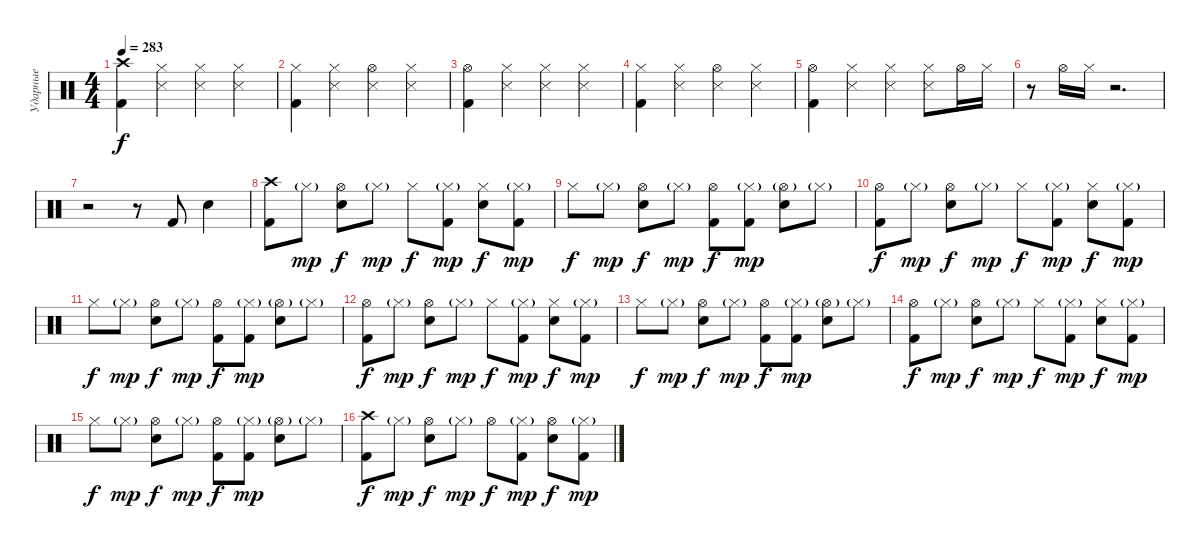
\track ("Ударные" "Ударные") {instrument percussion}
\staff {score}
\articulation defaults
\ts (4 4)
\tempo 283
\clef neutral
\ks c
("Crash high (hit)" "Kick (hit) 2").4{dy f} ("Hi-Hat (closed)" "Snare (side stick) 3").4 ("Hi-Hat (closed)" "Snare (side stick) 3").4 ("Hi-Hat (closed)" "Snare (side stick) 3").4 |
("Hi-Hat (closed)" "Kick (hit) 2").4 ("Hi-Hat (closed)" "Snare (side stick) 3").4 ("Hi-Hat (open)" "Snare (side stick) 3").4 ("Hi-Hat (closed)" "Snare (side stick) 3").4 |
("Hi-Hat (open)" "Kick (hit) 2").4 ("Hi-Hat (closed)" "Snare (side stick) 3").4 ("Hi-Hat (closed)" "Snare (side stick) 3").4 ("Hi-Hat (closed)" "Snare (side stick) 3").4 |
("Hi-Hat (closed)" "Kick (hit) 2").4 ("Hi-Hat (closed)" "Snare (side stick) 3").4 ("Hi-Hat (open)" "Snare (side stick) 3").4 ("Hi-Hat (closed)" "Snare (side stick) 3").4 |
("Hi-Hat (open)" "Kick (hit) 2").4 ("Hi-Hat (closed)" "Snare (side stick) 3").4 ("Hi-Hat (closed)" "Snare (side stick) 3").4 ("Hi-Hat (closed)" "Snare (side stick) 3").8 "Hi-Hat (open)".16 "Hi-Hat (closed)".16 |
r.8 "Hi-Hat (open)".16 "Hi-Hat (closed)".16 r.2{d} |
r.2 r.8 "Kick (hit) 2".8 "Electric Snare (hit)".4 |
("Crash high (hit)" "Kick (hit) 2").8 "Hi-Hat (closed)"{g}.8{dy mp} ("Hi-Hat (open)" "Electric Snare (hit)").8{dy f} "Hi-Hat (closed)"{g}.8{dy mp} "Hi-Hat (closed)".8{dy f} ("Hi-Hat (closed)"{g} "Kick (hit) 2").8{dy mp} ("Hi-Hat (closed)" "Electric Snare (hit)").8{dy f} ("Hi-Hat (closed)"{g} "Kick (hit) 2").8{dy mp} |
"Hi-Hat (closed)".8{dy f} "Hi-Hat (closed)"{g}.8{dy mp} ("Hi-Hat (open)" "Electric Snare (hit)").8{dy f} "Hi-Hat (closed)"{g}.8{dy mp} ("Hi-Hat (open)" "Kick (hit) 2").8{dy f} ("Hi-Hat (closed)"{g} "Kick (hit) 2").8{dy mp} ("Hi-Hat (open)"{g} "Electric Snare (hit)").8 "Hi-Hat (closed)"{g}.8 |
("Hi-Hat (open)" "Kick (hit) 2").8{dy f} "Hi-Hat (closed)"{g}.8{dy mp} ("Hi-Hat (open)" "Electric Snare (hit)").8{dy f} "Hi-Hat (closed)"{g}.8{dy mp} "Hi-Hat (closed)".8{dy f} ("Hi-Hat (closed)"{g} "Kick (hit) 2").8{dy mp} ("Hi-Hat (closed)" "Electric Snare (hit)").8{dy f} ("Hi-Hat (closed)"{g} "Kick (hit) 2").8{dy mp} |
"Hi-Hat (closed)".8{dy f} "Hi-Hat (closed)"{g}.8{dy mp} ("Hi-Hat (open)" "Electric Snare (hit)").8{dy f} "Hi-Hat (closed)"{g}.8{dy mp} ("Hi-Hat (open)" "Kick (hit) 2").8{dy f} ("Hi-Hat (closed)"{g} "Kick (hit) 2").8{dy mp} ("Hi-Hat (open)"{g} "Electric Snare (hit)").8 "Hi-Hat (closed)"{g}.8 |
("Hi-Hat (open)" "Kick (hit) 2").8{dy f} "Hi-Hat (closed)"{g}.8{dy mp} ("Hi-Hat (open)" "Electric Snare (hit)").8{dy f} "Hi-Hat (closed)"{g}.8{dy mp} "Hi-Hat (closed)".8{dy f} ("Hi-Hat (closed)"{g} "Kick (hit) 2").8{dy mp} ("Hi-Hat (closed)" "Electric Snare (hit)").8{dy f} ("Hi-Hat (closed)"{g} "Kick (hit) 2").8{dy mp} |
"Hi-Hat (closed)".8{dy f} "Hi-Hat (closed)"{g}.8{dy mp} ("Hi-Hat (open)" "Electric Snare (hit)").8{dy f} "Hi-Hat (closed)"{g}.8{dy mp} ("Hi-Hat (open)" "Kick (hit) 2").8{dy f} ("Hi-Hat (closed)"{g} "Kick (hit) 2").8{dy mp} ("Hi-Hat (open)"{g} "Electric Snare (hit)").8 "Hi-Hat (closed)"{g}.8 |
("Hi-Hat (open)" "Kick (hit) 2").8{dy f} "Hi-Hat (closed)"{g}.8{dy mp} ("Hi-Hat (open)" "Electric Snare (hit)").8{dy f} "Hi-Hat (closed)"{g}.8{dy mp} "Hi-Hat (closed)".8{dy f} ("Hi-Hat (closed)"{g} "Kick (hit) 2").8{dy mp} ("Hi-Hat (closed)" "Electric Snare (hit)").8{dy f} ("Hi-Hat (closed)"{g} "Kick (hit) 2").8{dy mp} |
"Hi-Hat (closed)".8{dy f} "Hi-Hat (closed)"{g}.8{dy mp} ("Hi-Hat (open)" "Electric Snare (hit)").8{dy f} "Hi-Hat (closed)"{g}.8{dy mp} ("Hi-Hat (open)" "Kick (hit) 2").8{dy f} ("Hi-Hat (closed)"{g} "Kick (hit) 2").8{dy mp} ("Hi-Hat (open)"{g} "Electric Snare (hit)").8 "Hi-Hat (closed)"{g}.8 |
("Crash high (hit)" "Kick (hit) 2").8{dy f} "Hi-Hat (closed)"{g}.8{dy mp} ("Hi-Hat (open)" "Electric Snare (hit)").8{dy f} "Hi-Hat (closed)"{g}.8{dy mp} "Hi-Hat (open)".8{dy f} ("Hi-Hat (closed)"{g} "Kick (hit) 2").8{dy mp} ("Hi-Hat (open)" "Electric Snare (hit)").8{dy f} ("Hi-Hat (closed)"{g} "Kick (hit) 2").8{dy mp}
